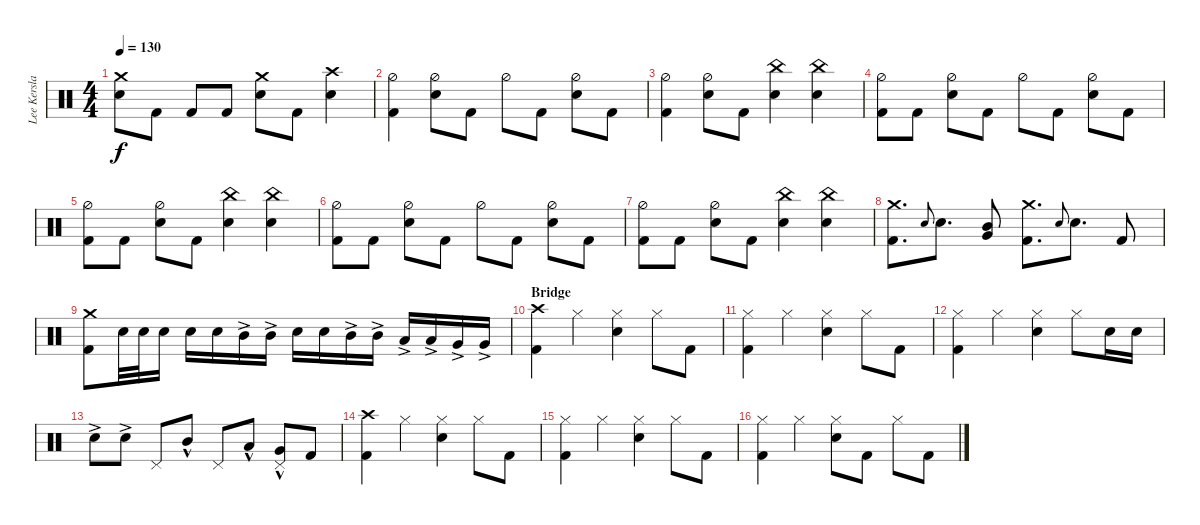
\track ("Lee Kerslake" "Lee Kersla") {instrument percussion}
\staff {score}
\articulation defaults
\ts (4 4)
\tempo 130
\clef neutral
\ks c
("Snare (hit) 2" "Crash medium (hit)").8{dy f} "Kick (hit) 2".8 "Kick (hit) 2".8 "Kick (hit) 2".8 ("Snare (hit) 2" "Crash medium (hit)").8 "Kick (hit) 2".8 ("Snare (hit) 2" "Crash high (hit)").4 |
("Kick (hit) 2" "Hi-Hat (half)").4 ("Snare (hit) 2" "Hi-Hat (half)").8 "Kick (hit) 2".8 "Hi-Hat (half)".8 "Kick (hit) 2".8 ("Snare (hit) 2" "Hi-Hat (half)").8 "Kick (hit) 2".8 |
("Kick (hit) 2" "Hi-Hat (half)").4 ("Snare (hit) 2" "Hi-Hat (half)").8 "Kick (hit) 2".8 ("Snare (hit) 2" "China (hit)").4 ("Snare (hit) 2" "China (hit)").4 |
("Kick (hit) 2" "Hi-Hat (half)").8 "Kick (hit) 2".8 ("Snare (hit) 2" "Hi-Hat (half)").8 "Kick (hit) 2".8 "Hi-Hat (half)".8 "Kick (hit) 2".8 ("Snare (hit) 2" "Hi-Hat (half)").8 "Kick (hit) 2".8 |
("Kick (hit) 2" "Hi-Hat (half)").8 "Kick (hit) 2".8 ("Snare (hit) 2" "Hi-Hat (half)").8 "Kick (hit) 2".8 ("Snare (hit) 2" "China (hit)").4 ("Snare (hit) 2" "China (hit)").4 |
("Kick (hit) 2" "Hi-Hat (half)").8 "Kick (hit) 2".8 ("Snare (hit) 2" "Hi-Hat (half)").8 "Kick (hit) 2".8 "Hi-Hat (half)".8 "Kick (hit) 2".8 ("Snare (hit) 2" "Hi-Hat (half)").8 "Kick (hit) 2".8 |
("Kick (hit) 2" "Hi-Hat (half)").8 "Kick (hit) 2".8 ("Snare (hit) 2" "Hi-Hat (half)").8 "Kick (hit) 2".8 ("Snare (hit) 2" "China (hit)").4 ("Snare (hit) 2" "China (hit)").4 |
("Kick (hit) 2" "Crash medium (hit)").8{d} "Snare (hit)".8{gr onbeat} "Snare (hit) 2".8{d} ("Mid Tom (hit)" "Very Low Tom (hit)").8 ("Kick (hit) 2" "Crash medium (hit)").8{d} "Snare (hit)".8{gr onbeat} "Snare (hit) 2".8{d} "Kick (hit) 2".8 |
("Kick (hit) 2" "Crash medium (hit)").8 "Snare (hit) 2".32 "Snare (hit) 2".32 "Snare (hit) 2".16 "Snare (hit) 2".16 "Snare (hit) 2".16 "Mid Tom (hit)"{ac}.16 "Mid Tom (hit)"{ac}.16 "Snare (hit) 2".16 "Snare (hit) 2".16 "Mid Tom (hit)"{ac}.16 "Mid Tom (hit)"{ac}.16 "Low Tom (hit)"{ac}.16 "Low Tom (hit)"{ac}.16 "Very Low Tom (hit)"{ac}.16 "Very Low Tom (hit)"{ac}.16 |
\section ("" "Bridge")
("Kick (hit) 2" "Crash high (hit)").4 "Hi-Hat (closed)".4 ("Hi-Hat (closed)" "Snare (hit) 2").4 "Hi-Hat (closed)".8 "Kick (hit) 2".8 |
("Kick (hit) 2" "Hi-Hat (closed)").4 "Hi-Hat (closed)".4 ("Hi-Hat (closed)" "Snare (hit) 2").4 "Hi-Hat (closed)".8 "Kick (hit) 2".8 |
("Kick (hit) 2" "Hi-Hat (closed)").4 "Hi-Hat (closed)".4 ("Hi-Hat (closed)" "Snare (hit) 2").4 "Hi-Hat (closed)".8 "Snare (hit) 2".16 "Snare (hit) 2".16 |
"Snare (hit) 2"{ac}.8 "Snare (hit) 2"{ac}.8 "Pedal Hi-Hat (hit)".8 "Mid Tom (hit)"{hac}.8 "Pedal Hi-Hat (hit)".8 "Low Tom (hit)"{hac}.8 ("Pedal Hi-Hat (hit)" "Very Low Tom (hit)"{hac}).8 "Kick (hit) 2".8 |
("Kick (hit) 2" "Crash high (hit)").4 "Hi-Hat (closed)".4 ("Hi-Hat (closed)" "Snare (hit) 2").4 "Hi-Hat (closed)".8 "Kick (hit) 2".8 |
("Kick (hit) 2" "Hi-Hat (closed)").4 "Hi-Hat (closed)".4 ("Hi-Hat (closed)" "Snare (hit) 2").4 "Hi-Hat (closed)".8 "Kick (hit) 2".8 |
("Hi-Hat (closed)" "Kick (hit) 2").4 "Hi-Hat (closed)".4 ("Hi-Hat (closed)" "Snare (hit) 2").8 "Kick (hit) 2".8 "Hi-Hat (closed)".8 "Kick (hit) 2".8
